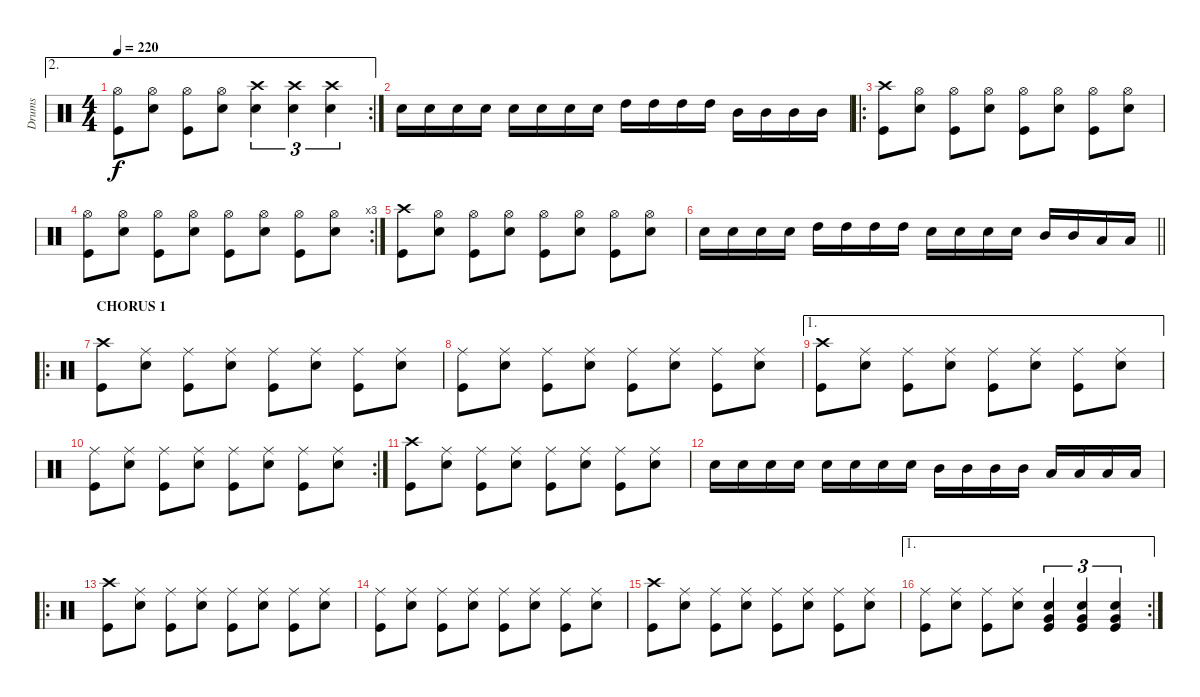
\track ("Drums" "Drums") {instrument percussion}
\staff {score}
\articulation defaults
\ae 2
\rc 2
\ts (4 4)
\tempo 220
\clef neutral
\ks c
("Hi-Hat (open)" "Kick (hit)").8{dy f} ("Hi-Hat (open)" "Snare (hit) 2").8 ("Hi-Hat (open)" "Kick (hit)").8 ("Hi-Hat (open)" "Snare (hit) 2").8 ("Crash high (hit)" "Snare (hit) 2").4{tu (3 2)} ("Crash high (hit)" "Snare (hit) 2").4{tu (3 2)} ("Crash high (hit)" "Snare (hit) 2").4{tu (3 2)} |
"Snare (hit) 2".16 "Snare (hit) 2".16 "Snare (hit) 2".16 "Snare (hit) 2".16 "Snare (hit) 2".16 "Snare (hit) 2".16 "Snare (hit) 2".16 "Snare (hit) 2".16 "High Tom (hit)".16 "High Tom (hit)".16 "High Tom (hit)".16 "High Tom (hit)".16 "Mid Tom (hit)".16 "Mid Tom (hit)".16 "Mid Tom (hit)".16 "Mid Tom (hit)".16 |
\ro
("Crash high (hit)" "Kick (hit)").8 ("Hi-Hat (open)" "Snare (hit) 2").8 ("Hi-Hat (open)" "Kick (hit)").8 ("Hi-Hat (open)" "Snare (hit) 2").8 ("Hi-Hat (open)" "Kick (hit)").8 ("Hi-Hat (open)" "Snare (hit) 2").8 ("Hi-Hat (open)" "Kick (hit)").8 ("Hi-Hat (open)" "Snare (hit) 2").8 |
\rc 3
("Hi-Hat (open)" "Kick (hit)").8 ("Hi-Hat (open)" "Snare (hit) 2").8 ("Hi-Hat (open)" "Kick (hit)").8 ("Hi-Hat (open)" "Snare (hit) 2").8 ("Hi-Hat (open)" "Kick (hit)").8 ("Hi-Hat (open)" "Snare (hit) 2").8 ("Hi-Hat (open)" "Kick (hit)").8 ("Hi-Hat (open)" "Snare (hit) 2").8 |
("Crash high (hit)" "Kick (hit)").8 ("Hi-Hat (open)" "Snare (hit) 2").8 ("Hi-Hat (open)" "Kick (hit)").8 ("Hi-Hat (open)" "Snare (hit) 2").8 ("Hi-Hat (open)" "Kick (hit)").8 ("Hi-Hat (open)" "Snare (hit) 2").8 ("Hi-Hat (open)" "Kick (hit)").8 ("Hi-Hat (open)" "Snare (hit) 2").8 |
\barLineRight lightlight "Snare (hit) 2".16 "Snare (hit) 2".16 "Snare (hit) 2".16 "Snare (hit) 2".16 "High Tom (hit)".16 "High Tom (hit)".16 "High Tom (hit)".16 "High Tom (hit)".16 "Snare (hit) 2".16 "Snare (hit) 2".16 "Snare (hit) 2".16 "Snare (hit) 2".16 "Mid Tom (hit)".16 "Mid Tom (hit)".16 "Low Tom (hit)".16 "Low Tom (hit)".16
|
\ro
\section ("" "CHORUS 1")
("Crash high (hit)" "Kick (hit)").8 ("Ride (middle)" "Snare (hit) 2").8 ("Ride (middle)" "Kick (hit)").8 ("Ride (middle)" "Snare (hit) 2").8 ("Ride (middle)" "Kick (hit)").8 ("Ride (middle)" "Snare (hit) 2").8 ("Ride (middle)" "Kick (hit)").8 ("Ride (middle)" "Snare (hit) 2").8 |
("Ride (middle)" "Kick (hit)").8 ("Ride (middle)" "Snare (hit) 2").8 ("Ride (middle)" "Kick (hit)").8 ("Ride (middle)" "Snare (hit) 2").8 ("Ride (middle)" "Kick (hit)").8 ("Ride (middle)" "Snare (hit) 2").8 ("Ride (middle)" "Kick (hit)").8 ("Ride (middle)" "Snare (hit) 2").8 |
\ae 1
("Crash high (hit)" "Kick (hit)").8 ("Ride (middle)" "Snare (hit) 2").8 ("Ride (middle)" "Kick (hit)").8 ("Ride (middle)" "Snare (hit) 2").8 ("Ride (middle)" "Kick (hit)").8 ("Ride (middle)" "Snare (hit) 2").8 ("Ride (middle)" "Kick (hit)").8 ("Ride (middle)" "Snare (hit) 2").8 |
\rc 2
("Ride (middle)" "Kick (hit)").8 ("Ride (middle)" "Snare (hit) 2").8 ("Ride (middle)" "Kick (hit)").8 ("Ride (middle)" "Snare (hit) 2").8 ("Ride (middle)" "Kick (hit)").8 ("Ride (middle)" "Snare (hit) 2").8 ("Ride (middle)" "Kick (hit)").8 ("Ride (middle)" "Snare (hit) 2").8 |
("Crash high (hit)" "Kick (hit)").8 ("Ride (middle)" "Snare (hit) 2").8 ("Ride (middle)" "Kick (hit)").8 ("Ride (middle)" "Snare (hit) 2").8 ("Ride (middle)" "Kick (hit)").8 ("Ride (middle)" "Snare (hit) 2").8 ("Ride (middle)" "Kick (hit)").8 ("Ride (middle)" "Snare (hit) 2").8 |
"Snare (hit) 2".16 "Snare (hit) 2".16 "Snare (hit) 2".16 "Snare (hit) 2".16 "Snare (hit) 2".16 "Snare (hit) 2".16 "Snare (hit) 2".16 "Snare (hit) 2".16 "Mid Tom (hit)".16 "Mid Tom (hit)".16 "Mid Tom (hit)".16 "Mid Tom (hit)".16 "Low Tom (hit)".16 "Low Tom (hit)".16 "Low Tom (hit)".16 "Low Tom (hit)".16 |
\ro
("Crash high (hit)" "Kick (hit)").8 ("Ride (middle)" "Snare (hit) 2").8 ("Ride (middle)" "Kick (hit)").8 ("Ride (middle)" "Snare (hit) 2").8 ("Ride (middle)" "Kick (hit)").8 ("Ride (middle)" "Snare (hit) 2").8 ("Ride (middle)" "Kick (hit)").8 ("Ride (middle)" "Snare (hit) 2").8 |
("Ride (middle)" "Kick (hit)").8 ("Ride (middle)" "Snare (hit) 2").8 ("Ride (middle)" "Kick (hit)").8 ("Ride (middle)" "Snare (hit) 2").8 ("Ride (middle)" "Kick (hit)").8 ("Ride (middle)" "Snare (hit) 2").8 ("Ride (middle)" "Kick (hit)").8 ("Ride (middle)" "Snare (hit) 2").8 |
("Crash high (hit)" "Kick (hit)").8 ("Ride (middle)" "Snare (hit) 2").8 ("Ride (middle)" "Kick (hit)").8 ("Ride (middle)" "Snare (hit) 2").8 ("Ride (middle)" "Kick (hit)").8 ("Ride (middle)" "Snare (hit) 2").8 ("Ride (middle)" "Kick (hit)").8 ("Ride (middle)" "Snare (hit) 2").8 |
\ae 1
\rc 2
("Ride (middle)" "Kick (hit)").8 ("Ride (middle)" "Snare (hit) 2").8 ("Ride (middle)" "Kick (hit)").8 ("Ride (middle)" "Snare (hit) 2").8 ("Very Low Tom (hit)" "Snare (hit) 2" "Kick (hit)").4{tu (3 2)} ("Very Low Tom (hit)" "Snare (hit) 2" "Kick (hit)").4{tu (3 2)} ("Very Low Tom (hit)" "Snare (hit) 2" "Kick (hit)").4{tu (3 2)}
